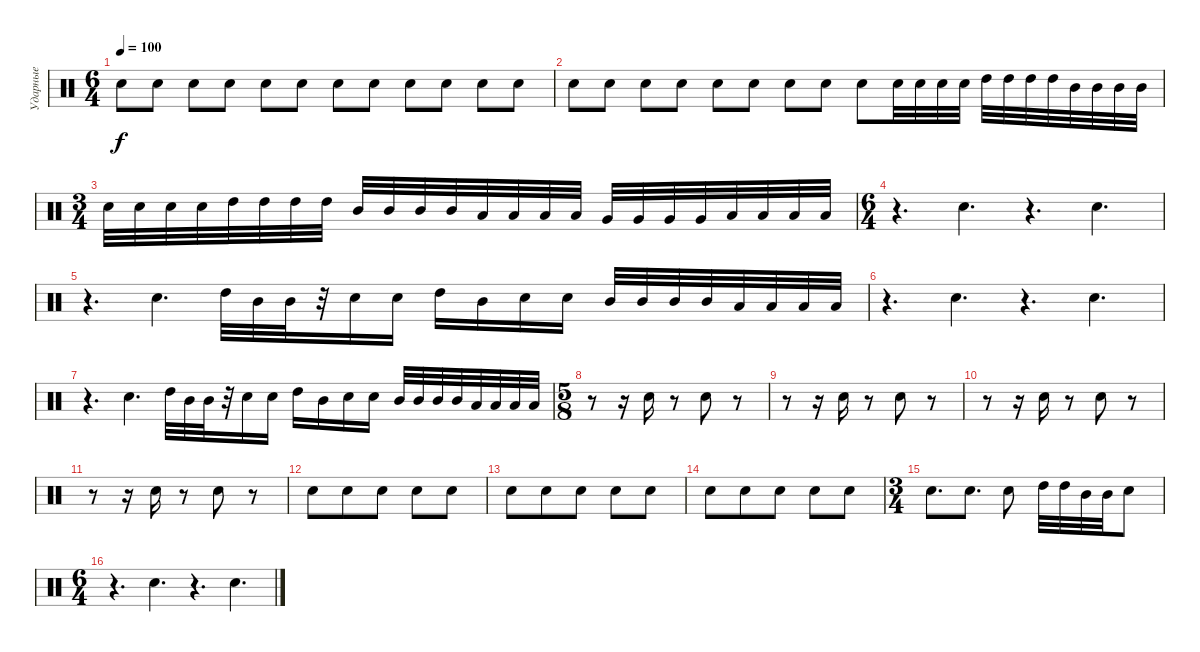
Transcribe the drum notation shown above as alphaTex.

\track ("Ударные" "Ударные") {instrument percussion}
\staff {score}
\articulation defaults
\ts (6 4)
\tempo 100
\clef neutral
\ks c "Electric Snare (hit)".8{dy f} "Electric Snare (hit)".8 "Electric Snare (hit)".8 "Electric Snare (hit)".8 "Electric Snare (hit)".8 "Electric Snare (hit)".8 "Electric Snare (hit)".8 "Electric Snare (hit)".8 "Electric Snare (hit)".8 "Electric Snare (hit)".8 "Electric Snare (hit)".8 "Electric Snare (hit)".8
|
"Electric Snare (hit)".8 "Electric Snare (hit)".8 "Electric Snare (hit)".8 "Electric Snare (hit)".8 "Electric Snare (hit)".8 "Electric Snare (hit)".8 "Electric Snare (hit)".8 "Electric Snare (hit)".8 "Electric Snare (hit)".8 "Electric Snare (hit)".32 "Electric Snare (hit)".32 "Electric Snare (hit)".32 "Electric Snare (hit)".32 "High Tom (hit)".32 "High Tom (hit)".32 "High Tom (hit)".32 "High Tom (hit)".32 "Mid Tom (hit)".32 "Mid Tom (hit)".32 "Mid Tom (hit)".32 "Mid Tom (hit)".32 |
\ts (3 4)
"Electric Snare (hit)".32 "Electric Snare (hit)".32 "Electric Snare (hit)".32 "Electric Snare (hit)".32 "High Tom (hit)".32 "High Tom (hit)".32 "High Tom (hit)".32 "High Tom (hit)".32 "Mid Tom (hit)".32 "Mid Tom (hit)".32 "Mid Tom (hit)".32 "Mid Tom (hit)".32 "Low Tom (hit)".32 "Low Tom (hit)".32 "Low Tom (hit)".32 "Low Tom (hit)".32 "Very Low Tom (hit)".32 "Very Low Tom (hit)".32 "Very Low Tom (hit)".32 "Very Low Tom (hit)".32 "Low Floor Tom (hit)".32 "Low Floor Tom (hit)".32 "Low Floor Tom (hit)".32 "Low Floor Tom (hit)".32 |
\ts (6 4)
r.4{d} "Electric Snare (hit)".4{d} r.4{d} "Electric Snare (hit)".4{d} |
r.4{d} "Electric Snare (hit)".4{d} "High Tom (hit)".32 "Mid Tom (hit)".32 "Mid Tom (hit)".32 r.32 "Electric Snare (hit)".16 "Electric Snare (hit)".16 "High Tom (hit)".16 "Mid Tom (hit)".16 "Electric Snare (hit)".16 "Electric Snare (hit)".16 "Mid Tom (hit)".32 "Mid Tom (hit)".32 "Mid Tom (hit)".32 "Mid Tom (hit)".32 "Low Tom (hit)".32 "Low Tom (hit)".32 "Low Tom (hit)".32 "Low Tom (hit)".32 |
r.4{d} "Electric Snare (hit)".4{d} r.4{d} "Electric Snare (hit)".4{d} |
r.4{d} "Electric Snare (hit)".4{d} "High Tom (hit)".32 "Mid Tom (hit)".32 "Mid Tom (hit)".32 r.32 "Electric Snare (hit)".16 "Electric Snare (hit)".16 "High Tom (hit)".16 "Mid Tom (hit)".16 "Electric Snare (hit)".16 "Electric Snare (hit)".16 "Mid Tom (hit)".32 "Mid Tom (hit)".32 "Mid Tom (hit)".32 "Mid Tom (hit)".32 "Low Tom (hit)".32 "Low Tom (hit)".32 "Low Tom (hit)".32 "Low Tom (hit)".32 |
\ts (5 8)
r.8 r.16 "Electric Snare (hit)".16 r.8 "Electric Snare (hit)".8 r.8 |
r.8 r.16 "Electric Snare (hit)".16 r.8 "Electric Snare (hit)".8 r.8 |
r.8 r.16 "Electric Snare (hit)".16 r.8 "Electric Snare (hit)".8 r.8 |
r.8 r.16 "Electric Snare (hit)".16 r.8 "Electric Snare (hit)".8 r.8 |
"Electric Snare (hit)".8 "Electric Snare (hit)".8 "Electric Snare (hit)".8 "Electric Snare (hit)".8 "Electric Snare (hit)".8 |
"Electric Snare (hit)".8 "Electric Snare (hit)".8 "Electric Snare (hit)".8 "Electric Snare (hit)".8 "Electric Snare (hit)".8 |
"Electric Snare (hit)".8 "Electric Snare (hit)".8 "Electric Snare (hit)".8 "Electric Snare (hit)".8 "Electric Snare (hit)".8 |
\ts (3 4)
"Electric Snare (hit)".8{d} "Electric Snare (hit)".8{d} "Electric Snare (hit)".8 "High Tom (hit)".32 "High Tom (hit)".32 "Mid Tom (hit)".32 "Mid Tom (hit)".32 "Electric Snare (hit)".8 |
\ts (6 4)
r.4{d} "Electric Snare (hit)".4{d} r.4{d} "Electric Snare (hit)".4{d}
